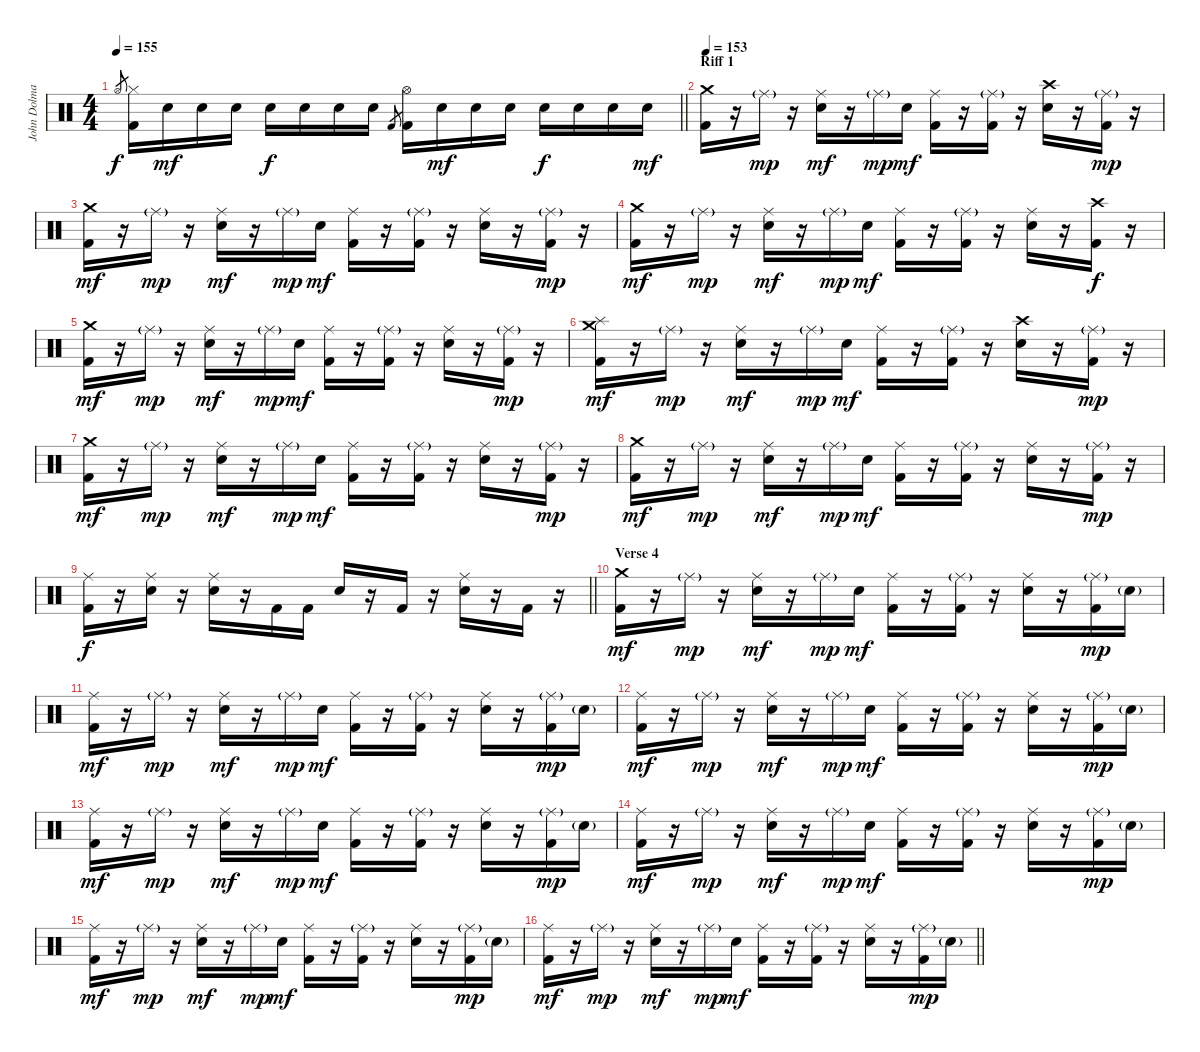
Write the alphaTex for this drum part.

\track ("John Dolmayan" "John Dolma") {instrument percussion}
\staff {score}
\articulation defaults
\ts (4 4)
\tempo 155
\clef neutral
\barLineRight lightlight
\ks c "Hi-Hat (open)".8{gr dy f}
("Hi-Hat (closed)" "Kick (hit) 2").16 "Electric Snare (hit)".16{dy mf} "Electric Snare (hit)".16 "Electric Snare (hit)".16 "Electric Snare (hit)".16{dy f} "Electric Snare (hit)".16 "Electric Snare (hit)".16 "Electric Snare (hit)".16 "Kick (hit) 2".8{gr} ("Hi-Hat (open)" "Kick (hit) 2").16 "Electric Snare (hit)".16{dy mf} "Electric Snare (hit)".16 "Electric Snare (hit)".16 "Electric Snare (hit)".16{dy f} "Electric Snare (hit)".16 "Electric Snare (hit)".16 "Electric Snare (hit)".16{dy mf} |
\section ("" "Riff 1")
\tempo 153
("Crash medium (hit)" "Kick (hit) 2").16 r.16 "Ride (middle)"{g}.16{dy mp} r.16 ("Ride (middle)" "Electric Snare (hit)").16{dy mf} r.16 "Ride (middle)"{g}.16{dy mp} "Electric Snare (hit)".16{dy mf} ("Ride (middle)" "Kick (hit) 2").16 r.16 ("Ride (middle)"{g} "Kick (hit) 2").16 r.16 ("Crash high (hit)" "Electric Snare (hit)").16 r.16 ("Ride (middle)"{g} "Kick (hit) 2").16{dy mp} r.16 |
("Crash medium (hit)" "Kick (hit) 2").16{dy mf} r.16 "Ride (middle)"{g}.16{dy mp} r.16 ("Ride (middle)" "Electric Snare (hit)").16{dy mf} r.16 "Ride (middle)"{g}.16{dy mp} "Electric Snare (hit)".16{dy mf} ("Ride (middle)" "Kick (hit) 2").16 r.16 ("Ride (middle)"{g} "Kick (hit) 2").16 r.16 ("Ride (middle)" "Electric Snare (hit)").16 r.16 ("Ride (middle)"{g} "Kick (hit) 2").16{dy mp} r.16 |
("Crash medium (hit)" "Kick (hit) 2").16{dy mf} r.16 "Ride (middle)"{g}.16{dy mp} r.16 ("Ride (middle)" "Electric Snare (hit)").16{dy mf} r.16 "Ride (middle)"{g}.16{dy mp} "Electric Snare (hit)".16{dy mf} ("Ride (middle)" "Kick (hit) 2").16 r.16 ("Ride (middle)"{g} "Kick (hit) 2").16 r.16 ("Ride (middle)" "Electric Snare (hit)").16 r.16 ("Crash high (hit)" "Kick (hit) 2").16{dy f} r.16 |
("Crash medium (hit)" "Kick (hit) 2").16{dy mf} r.16 "Ride (middle)"{g}.16{dy mp} r.16 ("Ride (middle)" "Electric Snare (hit)").16{dy mf} r.16 "Ride (middle)"{g}.16{dy mp} "Electric Snare (hit)".16{dy mf} ("Ride (middle)" "Kick (hit) 2").16 r.16 ("Ride (middle)"{g} "Kick (hit) 2").16 r.16 ("Ride (middle)" "Electric Snare (hit)").16 r.16 ("Ride (middle)"{g} "Kick (hit) 2").16{dy mp} r.16 |
("Crash medium (hit)" "Splash (hit)" "Kick (hit) 2").16{dy mf} r.16 "Ride (middle)"{g}.16{dy mp} r.16 ("Ride (middle)" "Electric Snare (hit)").16{dy mf} r.16 "Ride (middle)"{g}.16{dy mp} "Electric Snare (hit)".16{dy mf} ("Ride (middle)" "Kick (hit) 2").16 r.16 ("Ride (middle)"{g} "Kick (hit) 2").16 r.16 ("Crash high (hit)" "Electric Snare (hit)").16 r.16 ("Ride (middle)"{g} "Kick (hit) 2").16{dy mp} r.16 |
("Crash medium (hit)" "Kick (hit) 2").16{dy mf} r.16 "Ride (middle)"{g}.16{dy mp} r.16 ("Ride (middle)" "Electric Snare (hit)").16{dy mf} r.16 "Ride (middle)"{g}.16{dy mp} "Electric Snare (hit)".16{dy mf} ("Ride (middle)" "Kick (hit) 2").16 r.16 ("Ride (middle)"{g} "Kick (hit) 2").16 r.16 ("Ride (middle)" "Electric Snare (hit)").16 r.16 ("Ride (middle)"{g} "Kick (hit) 2").16{dy mp} r.16 |
("Crash medium (hit)" "Kick (hit) 2").16{dy mf} r.16 "Ride (middle)"{g}.16{dy mp} r.16 ("Ride (middle)" "Electric Snare (hit)").16{dy mf} r.16 "Ride (middle)"{g}.16{dy mp} "Electric Snare (hit)".16{dy mf} ("Ride (middle)" "Kick (hit) 2").16 r.16 ("Ride (middle)"{g} "Kick (hit) 2").16 r.16 ("Ride (middle)" "Electric Snare (hit)").16 r.16 ("Ride (middle)"{g} "Kick (hit) 2").16{dy mp} r.16 |
\barLineRight lightlight
("Ride (middle)" "Kick (hit) 2").16{dy f} r.16 ("Ride (middle)" "Electric Snare (hit)").16 r.16 ("Ride (middle)" "Electric Snare (hit)").16 r.16 "Kick (hit) 2".16 "Kick (hit) 2".16 "Electric Snare (hit)".16 r.16 "Kick (hit) 2".16 r.16 ("Ride (middle)" "Electric Snare (hit)").16 r.16 "Kick (hit) 2".16 r.16 |
\section ("" "Verse 4")
("Crash medium (hit)" "Kick (hit) 2").16{dy mf} r.16 "Ride (middle)"{g}.16{dy mp} r.16 ("Ride (middle)" "Electric Snare (hit)").16{dy mf} r.16 "Ride (middle)"{g}.16{dy mp} "Electric Snare (hit)".16{dy mf} ("Ride (middle)" "Kick (hit) 2").16 r.16 ("Ride (middle)"{g} "Kick (hit) 2").16 r.16 ("Ride (middle)" "Electric Snare (hit)").16 r.16 ("Ride (middle)"{g} "Kick (hit) 2").16{dy mp} "Electric Snare (hit)"{g}.16 |
("Ride (middle)" "Kick (hit) 2").16{dy mf} r.16 "Ride (middle)"{g}.16{dy mp} r.16 ("Ride (middle)" "Electric Snare (hit)").16{dy mf} r.16 "Ride (middle)"{g}.16{dy mp} "Electric Snare (hit)".16{dy mf} ("Ride (middle)" "Kick (hit) 2").16 r.16 ("Ride (middle)"{g} "Kick (hit) 2").16 r.16 ("Ride (middle)" "Electric Snare (hit)").16 r.16 ("Ride (middle)"{g} "Kick (hit) 2").16{dy mp} "Electric Snare (hit)"{g}.16 |
("Ride (middle)" "Kick (hit) 2").16{dy mf} r.16 "Ride (middle)"{g}.16{dy mp} r.16 ("Ride (middle)" "Electric Snare (hit)").16{dy mf} r.16 "Ride (middle)"{g}.16{dy mp} "Electric Snare (hit)".16{dy mf} ("Ride (middle)" "Kick (hit) 2").16 r.16 ("Ride (middle)"{g} "Kick (hit) 2").16 r.16 ("Ride (middle)" "Electric Snare (hit)").16 r.16 ("Ride (middle)"{g} "Kick (hit) 2").16{dy mp} "Electric Snare (hit)"{g}.16 |
("Ride (middle)" "Kick (hit) 2").16{dy mf} r.16 "Ride (middle)"{g}.16{dy mp} r.16 ("Ride (middle)" "Electric Snare (hit)").16{dy mf} r.16 "Ride (middle)"{g}.16{dy mp} "Electric Snare (hit)".16{dy mf} ("Ride (middle)" "Kick (hit) 2").16 r.16 ("Ride (middle)"{g} "Kick (hit) 2").16 r.16 ("Ride (middle)" "Electric Snare (hit)").16 r.16 ("Ride (middle)"{g} "Kick (hit) 2").16{dy mp} "Electric Snare (hit)"{g}.16 |
("Ride (middle)" "Kick (hit) 2").16{dy mf} r.16 "Ride (middle)"{g}.16{dy mp} r.16 ("Ride (middle)" "Electric Snare (hit)").16{dy mf} r.16 "Ride (middle)"{g}.16{dy mp} "Electric Snare (hit)".16{dy mf} ("Ride (middle)" "Kick (hit) 2").16 r.16 ("Ride (middle)"{g} "Kick (hit) 2").16 r.16 ("Ride (middle)" "Electric Snare (hit)").16 r.16 ("Ride (middle)"{g} "Kick (hit) 2").16{dy mp} "Electric Snare (hit)"{g}.16 |
("Ride (middle)" "Kick (hit) 2").16{dy mf} r.16 "Ride (middle)"{g}.16{dy mp} r.16 ("Ride (middle)" "Electric Snare (hit)").16{dy mf} r.16 "Ride (middle)"{g}.16{dy mp} "Electric Snare (hit)".16{dy mf} ("Ride (middle)" "Kick (hit) 2").16 r.16 ("Ride (middle)"{g} "Kick (hit) 2").16 r.16 ("Ride (middle)" "Electric Snare (hit)").16 r.16 ("Ride (middle)"{g} "Kick (hit) 2").16{dy mp} "Electric Snare (hit)"{g}.16 |
\barLineRight lightlight
("Ride (middle)" "Kick (hit) 2").16{dy mf} r.16 "Ride (middle)"{g}.16{dy mp} r.16 ("Ride (middle)" "Electric Snare (hit)").16{dy mf} r.16 "Ride (middle)"{g}.16{dy mp} "Electric Snare (hit)".16{dy mf} ("Ride (middle)" "Kick (hit) 2").16 r.16 ("Ride (middle)"{g} "Kick (hit) 2").16 r.16 ("Ride (middle)" "Electric Snare (hit)").16 r.16 ("Ride (middle)"{g} "Kick (hit) 2").16{dy mp} "Electric Snare (hit)"{g}.16
